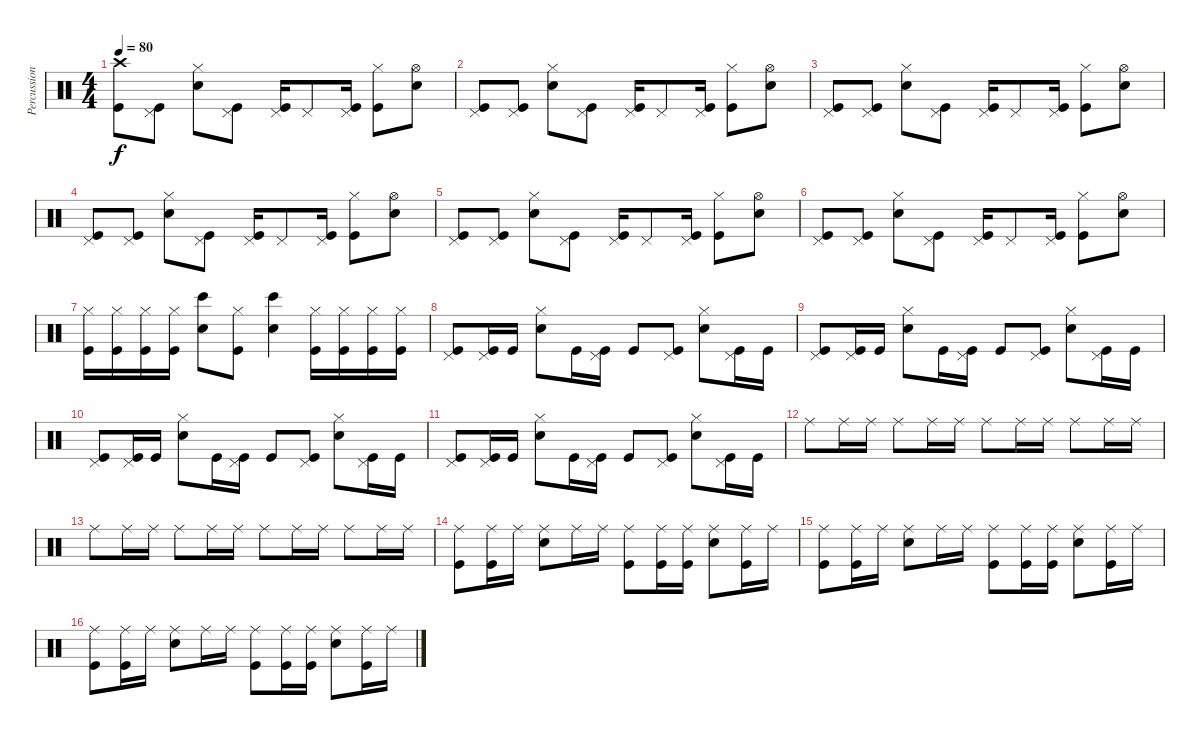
\track ("Percussions" "Percussion") {instrument percussion}
\staff {score}
\articulation defaults
\ts (4 4)
\tempo 80
\clef neutral
\ks c
("Crash high (hit)" "Kick (hit)").8{dy f volume 16} ("Pedal Hi-Hat (hit)" "Kick (hit)").8 ("Hi-Hat (closed)" "Electric Snare (hit)").8 ("Pedal Hi-Hat (hit)" "Kick (hit)").8 ("Pedal Hi-Hat (hit)" "Kick (hit)").16 "Pedal Hi-Hat (hit)".8 ("Pedal Hi-Hat (hit)" "Kick (hit)").16 ("Hi-Hat (closed)" "Kick (hit)").8 ("Hi-Hat (open)" "Electric Snare (hit)").8 |
("Pedal Hi-Hat (hit)" "Kick (hit)").8 ("Pedal Hi-Hat (hit)" "Kick (hit)").8 ("Hi-Hat (closed)" "Electric Snare (hit)").8 ("Pedal Hi-Hat (hit)" "Kick (hit)").8 ("Pedal Hi-Hat (hit)" "Kick (hit)").16 "Pedal Hi-Hat (hit)".8 ("Pedal Hi-Hat (hit)" "Kick (hit)").16 ("Hi-Hat (closed)" "Kick (hit)").8 ("Hi-Hat (open)" "Electric Snare (hit)").8 |
("Pedal Hi-Hat (hit)" "Kick (hit)").8 ("Pedal Hi-Hat (hit)" "Kick (hit)").8 ("Hi-Hat (closed)" "Electric Snare (hit)").8 ("Pedal Hi-Hat (hit)" "Kick (hit)").8 ("Pedal Hi-Hat (hit)" "Kick (hit)").16 "Pedal Hi-Hat (hit)".8 ("Pedal Hi-Hat (hit)" "Kick (hit)").16 ("Hi-Hat (closed)" "Kick (hit)").8 ("Hi-Hat (open)" "Electric Snare (hit)").8 |
("Pedal Hi-Hat (hit)" "Kick (hit)").8 ("Pedal Hi-Hat (hit)" "Kick (hit)").8 ("Hi-Hat (closed)" "Electric Snare (hit)").8 ("Pedal Hi-Hat (hit)" "Kick (hit)").8 ("Pedal Hi-Hat (hit)" "Kick (hit)").16 "Pedal Hi-Hat (hit)".8 ("Pedal Hi-Hat (hit)" "Kick (hit)").16 ("Hi-Hat (closed)" "Kick (hit)").8 ("Hi-Hat (open)" "Electric Snare (hit)").8 |
("Pedal Hi-Hat (hit)" "Kick (hit)").8 ("Pedal Hi-Hat (hit)" "Kick (hit)").8 ("Hi-Hat (closed)" "Electric Snare (hit)").8 ("Pedal Hi-Hat (hit)" "Kick (hit)").8 ("Pedal Hi-Hat (hit)" "Kick (hit)").16 "Pedal Hi-Hat (hit)".8 ("Pedal Hi-Hat (hit)" "Kick (hit)").16 ("Hi-Hat (closed)" "Kick (hit)").8 ("Hi-Hat (open)" "Electric Snare (hit)").8 |
("Pedal Hi-Hat (hit)" "Kick (hit)").8 ("Pedal Hi-Hat (hit)" "Kick (hit)").8 ("Hi-Hat (closed)" "Electric Snare (hit)").8 ("Pedal Hi-Hat (hit)" "Kick (hit)").8 ("Pedal Hi-Hat (hit)" "Kick (hit)").16 "Pedal Hi-Hat (hit)".8 ("Pedal Hi-Hat (hit)" "Kick (hit)").16 ("Hi-Hat (closed)" "Kick (hit)").8 ("Hi-Hat (open)" "Electric Snare (hit)").8 |
("Hi-Hat (closed)" "Kick (hit)").16 ("Hi-Hat (closed)" "Kick (hit)").16 ("Hi-Hat (closed)" "Kick (hit)").16 ("Hi-Hat (closed)" "Kick (hit)").16 ("Bongo High (hit)" "Electric Snare (hit)").8 ("Hi-Hat (closed)" "Kick (hit)").8 ("Bongo High (hit)" "Electric Snare (hit)").4 ("Hi-Hat (closed)" "Kick (hit)").16 ("Hi-Hat (closed)" "Kick (hit)").16 ("Hi-Hat (closed)" "Kick (hit)").16 ("Hi-Hat (closed)" "Kick (hit)").16 |
("Pedal Hi-Hat (hit)" "Kick (hit)").8{volume 16} ("Pedal Hi-Hat (hit)" "Kick (hit)").16 "Kick (hit)".16 ("Hi-Hat (closed)" "Electric Snare (hit)").8 "Kick (hit)".16 ("Pedal Hi-Hat (hit)" "Kick (hit)").16 "Kick (hit)".8 ("Pedal Hi-Hat (hit)" "Kick (hit)").8 ("Hi-Hat (closed)" "Electric Snare (hit)").8 ("Pedal Hi-Hat (hit)" "Kick (hit)").16 "Kick (hit)".16 |
("Pedal Hi-Hat (hit)" "Kick (hit)").8{volume 16} ("Pedal Hi-Hat (hit)" "Kick (hit)").16 "Kick (hit)".16 ("Hi-Hat (closed)" "Electric Snare (hit)").8 "Kick (hit)".16 ("Pedal Hi-Hat (hit)" "Kick (hit)").16 "Kick (hit)".8 ("Pedal Hi-Hat (hit)" "Kick (hit)").8 ("Hi-Hat (closed)" "Electric Snare (hit)").8 ("Pedal Hi-Hat (hit)" "Kick (hit)").16 "Kick (hit)".16 |
("Pedal Hi-Hat (hit)" "Kick (hit)").8{volume 16} ("Pedal Hi-Hat (hit)" "Kick (hit)").16 "Kick (hit)".16 ("Hi-Hat (closed)" "Electric Snare (hit)").8 "Kick (hit)".16 ("Pedal Hi-Hat (hit)" "Kick (hit)").16 "Kick (hit)".8 ("Pedal Hi-Hat (hit)" "Kick (hit)").8 ("Hi-Hat (closed)" "Electric Snare (hit)").8 ("Pedal Hi-Hat (hit)" "Kick (hit)").16 "Kick (hit)".16 |
("Pedal Hi-Hat (hit)" "Kick (hit)").8{volume 16} ("Pedal Hi-Hat (hit)" "Kick (hit)").16 "Kick (hit)".16 ("Hi-Hat (closed)" "Electric Snare (hit)").8 "Kick (hit)".16 ("Pedal Hi-Hat (hit)" "Kick (hit)").16 "Kick (hit)".8 ("Pedal Hi-Hat (hit)" "Kick (hit)").8 ("Hi-Hat (closed)" "Electric Snare (hit)").8 ("Pedal Hi-Hat (hit)" "Kick (hit)").16 "Kick (hit)".16 |
"Ride (middle)".8 "Ride (middle)".16 "Ride (middle)".16 "Ride (middle)".8 "Ride (middle)".16 "Ride (middle)".16 "Ride (middle)".8 "Ride (middle)".16 "Ride (middle)".16 "Ride (middle)".8 "Ride (middle)".16 "Ride (middle)".16 |
"Ride (middle)".8 "Ride (middle)".16 "Ride (middle)".16 "Ride (middle)".8 "Ride (middle)".16 "Ride (middle)".16 "Ride (middle)".8 "Ride (middle)".16 "Ride (middle)".16 "Ride (middle)".8 "Ride (middle)".16 "Ride (middle)".16 |
("Ride (middle)" "Kick (hit)").8 ("Ride (middle)" "Kick (hit)").16 "Ride (middle)".16 ("Ride (middle)" "Electric Snare (hit)").8 "Ride (middle)".16 "Ride (middle)".16 ("Ride (middle)" "Kick (hit)").8 ("Ride (middle)" "Kick (hit)").16 ("Ride (middle)" "Kick (hit)").16 ("Ride (middle)" "Electric Snare (hit)").8 ("Ride (middle)" "Kick (hit)").16 "Ride (middle)".16 |
("Ride (middle)" "Kick (hit)").8 ("Ride (middle)" "Kick (hit)").16 "Ride (middle)".16 ("Ride (middle)" "Electric Snare (hit)").8 "Ride (middle)".16 "Ride (middle)".16 ("Ride (middle)" "Kick (hit)").8 ("Ride (middle)" "Kick (hit)").16 ("Ride (middle)" "Kick (hit)").16 ("Ride (middle)" "Electric Snare (hit)").8 ("Ride (middle)" "Kick (hit)").16 "Ride (middle)".16 |
("Ride (middle)" "Kick (hit)").8 ("Ride (middle)" "Kick (hit)").16 "Ride (middle)".16 ("Ride (middle)" "Electric Snare (hit)").8 "Ride (middle)".16 "Ride (middle)".16 ("Ride (middle)" "Kick (hit)").8 ("Ride (middle)" "Kick (hit)").16 ("Ride (middle)" "Kick (hit)").16 ("Ride (middle)" "Electric Snare (hit)").8 ("Ride (middle)" "Kick (hit)").16 "Ride (middle)".16
